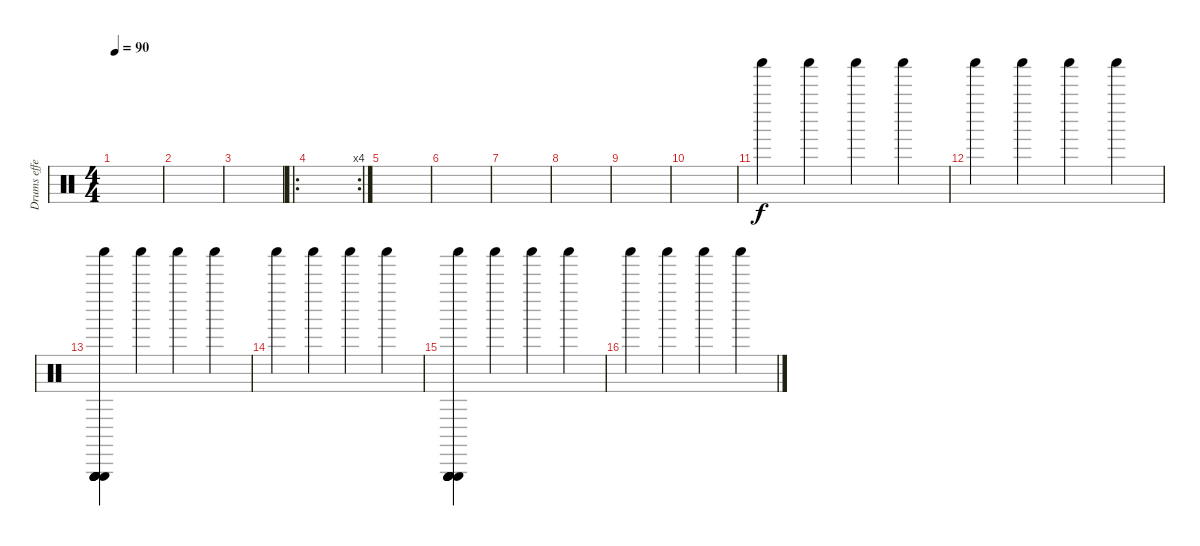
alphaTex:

\track ("Drums effect" "Drums effe") {instrument percussion}
\staff {score}
\articulation defaults
\ts (4 4)
\tempo 90
\clef neutral
\ks c
|
|
|
\ro
\rc 4
|
|
|
|
|
|
|
"Shaker (hit)".4 "Shaker (hit)".4 "Shaker (hit)".4 "Shaker (hit)".4 |
"Shaker (hit)".4 "Shaker (hit)".4 "Shaker (hit)".4 "Shaker (hit)".4 |
("Shaker (hit)" "Triangle (hit)" "Triangle (hit)" "Triangle (hit)" "Triangle (hit)" "Triangle (hit)").4 "Shaker (hit)".4 "Shaker (hit)".4 "Shaker (hit)".4 |
"Shaker (hit)".4 "Shaker (hit)".4 "Shaker (hit)".4 "Shaker (hit)".4 |
("Shaker (hit)" "Triangle (hit)" "Triangle (hit)" "Triangle (hit)" "Triangle (hit)" "Triangle (hit)").4 "Shaker (hit)".4 "Shaker (hit)".4 "Shaker (hit)".4 |
"Shaker (hit)".4 "Shaker (hit)".4 "Shaker (hit)".4 "Shaker (hit)".4
